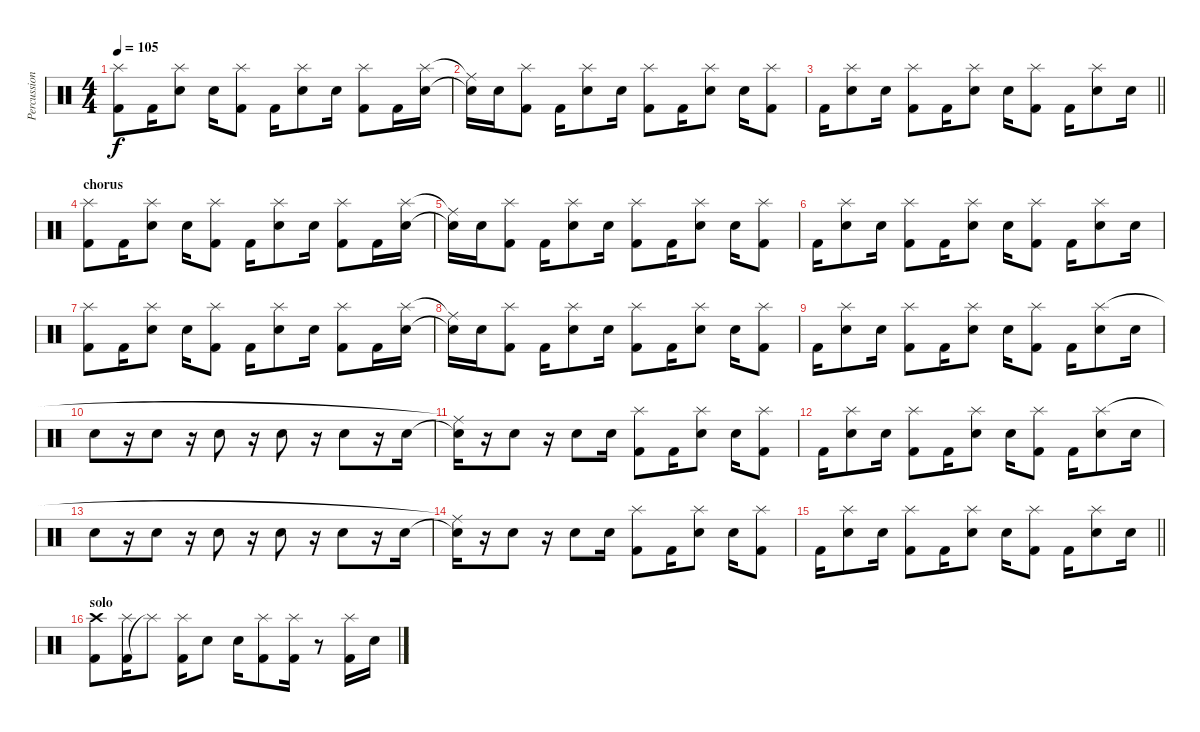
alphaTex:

\track ("Percussion" "Percussion") {instrument percussion}
\staff {score}
\articulation defaults
\ts (4 4)
\tempo 105
\clef neutral
\ks c
("Kick (hit) 2" "Splash (hit)").8{dy f} "Kick (hit) 2".16 ("Electric Snare (hit)" "Splash (hit)").8 "Electric Snare (hit)".16 ("Kick (hit) 2" "Splash (hit)").8 "Kick (hit) 2".16 ("Electric Snare (hit)" "Splash (hit)").8 "Electric Snare (hit)".16 ("Kick (hit) 2" "Splash (hit)").8 "Kick (hit) 2".16 ("Electric Snare (hit)" "Splash (hit)").16 |
("Electric Snare (hit)"{t} "Ride (middle)"{t}).16 "Electric Snare (hit)".16 ("Kick (hit) 2" "Splash (hit)").8 "Kick (hit) 2".16 ("Electric Snare (hit)" "Splash (hit)").8 "Electric Snare (hit)".16 ("Kick (hit) 2" "Splash (hit)").8 "Kick (hit) 2".16 ("Electric Snare (hit)" "Splash (hit)").8 "Electric Snare (hit)".16 ("Kick (hit) 2" "Splash (hit)").8 |
\barLineRight lightlight "Kick (hit) 2".16
("Electric Snare (hit)" "Splash (hit)").8 "Electric Snare (hit)".16 ("Kick (hit) 2" "Splash (hit)").8 "Kick (hit) 2".16 ("Electric Snare (hit)" "Splash (hit)").8 "Electric Snare (hit)".16 ("Kick (hit) 2" "Splash (hit)").8 "Kick (hit) 2".16 ("Electric Snare (hit)" "Splash (hit)").8 "Electric Snare (hit)".16 |
\section ("" "chorus")
("Kick (hit) 2" "Splash (hit)").8 "Kick (hit) 2".16 ("Electric Snare (hit)" "Splash (hit)").8 "Electric Snare (hit)".16 ("Kick (hit) 2" "Splash (hit)").8 "Kick (hit) 2".16 ("Electric Snare (hit)" "Splash (hit)").8 "Electric Snare (hit)".16 ("Kick (hit) 2" "Splash (hit)").8 "Kick (hit) 2".16 ("Electric Snare (hit)" "Splash (hit)").16 |
("Electric Snare (hit)"{t} "Ride (middle)"{t}).16 "Electric Snare (hit)".16 ("Kick (hit) 2" "Splash (hit)").8 "Kick (hit) 2".16 ("Electric Snare (hit)" "Splash (hit)").8 "Electric Snare (hit)".16 ("Kick (hit) 2" "Splash (hit)").8 "Kick (hit) 2".16 ("Electric Snare (hit)" "Splash (hit)").8 "Electric Snare (hit)".16 ("Kick (hit) 2" "Splash (hit)").8 |
"Kick (hit) 2".16 ("Electric Snare (hit)" "Splash (hit)").8 "Electric Snare (hit)".16 ("Kick (hit) 2" "Splash (hit)").8 "Kick (hit) 2".16 ("Electric Snare (hit)" "Splash (hit)").8 "Electric Snare (hit)".16 ("Kick (hit) 2" "Splash (hit)").8 "Kick (hit) 2".16 ("Electric Snare (hit)" "Splash (hit)").8 "Electric Snare (hit)".16 |
("Kick (hit) 2" "Splash (hit)").8 "Kick (hit) 2".16 ("Electric Snare (hit)" "Splash (hit)").8 "Electric Snare (hit)".16 ("Kick (hit) 2" "Splash (hit)").8 "Kick (hit) 2".16 ("Electric Snare (hit)" "Splash (hit)").8 "Electric Snare (hit)".16 ("Kick (hit) 2" "Splash (hit)").8 "Kick (hit) 2".16 ("Electric Snare (hit)" "Splash (hit)").16 |
("Electric Snare (hit)"{t} "Ride (middle)"{t}).16 "Electric Snare (hit)".16 ("Kick (hit) 2" "Splash (hit)").8 "Kick (hit) 2".16 ("Electric Snare (hit)" "Splash (hit)").8 "Electric Snare (hit)".16 ("Kick (hit) 2" "Splash (hit)").8 "Kick (hit) 2".16 ("Electric Snare (hit)" "Splash (hit)").8 "Electric Snare (hit)".16 ("Kick (hit) 2" "Splash (hit)").8 |
"Kick (hit) 2".16 ("Electric Snare (hit)" "Splash (hit)").8 "Electric Snare (hit)".16 ("Kick (hit) 2" "Splash (hit)").8 "Kick (hit) 2".16 ("Electric Snare (hit)" "Splash (hit)").8 "Electric Snare (hit)".16 ("Kick (hit) 2" "Splash (hit)").8 "Kick (hit) 2".16 ("Electric Snare (hit)" "Splash (hit)").8 "Electric Snare (hit)".16 |
"Electric Snare (hit)".8 r.16 "Electric Snare (hit)".8 r.16 "Electric Snare (hit)".8 r.16 "Electric Snare (hit)".8 r.16 "Electric Snare (hit)".8 r.16 "Electric Snare (hit)".16 |
("Electric Snare (hit)"{t} "Ride (middle)"{t}).16 r.16 "Electric Snare (hit)".8 r.16 "Electric Snare (hit)".8 "Electric Snare (hit)".16 ("Kick (hit) 2" "Splash (hit)").8 "Kick (hit) 2".16 ("Electric Snare (hit)" "Splash (hit)").8 "Electric Snare (hit)".16 ("Kick (hit) 2" "Splash (hit)").8 |
"Kick (hit) 2".16 ("Electric Snare (hit)" "Splash (hit)").8 "Electric Snare (hit)".16 ("Kick (hit) 2" "Splash (hit)").8 "Kick (hit) 2".16 ("Electric Snare (hit)" "Splash (hit)").8 "Electric Snare (hit)".16 ("Kick (hit) 2" "Splash (hit)").8 "Kick (hit) 2".16 ("Electric Snare (hit)" "Splash (hit)").8 "Electric Snare (hit)".16 |
"Electric Snare (hit)".8 r.16 "Electric Snare (hit)".8 r.16 "Electric Snare (hit)".8 r.16 "Electric Snare (hit)".8 r.16 "Electric Snare (hit)".8 r.16 "Electric Snare (hit)".16 |
("Electric Snare (hit)"{t} "Ride (middle)"{t}).16 r.16 "Electric Snare (hit)".8 r.16 "Electric Snare (hit)".8 "Electric Snare (hit)".16 ("Kick (hit) 2" "Splash (hit)").8 "Kick (hit) 2".16 ("Electric Snare (hit)" "Splash (hit)").8 "Electric Snare (hit)".16 ("Kick (hit) 2" "Splash (hit)").8 |
\barLineRight lightlight "Kick (hit) 2".16
("Electric Snare (hit)" "Splash (hit)").8 "Electric Snare (hit)".16 ("Kick (hit) 2" "Splash (hit)").8 "Kick (hit) 2".16 ("Electric Snare (hit)" "Splash (hit)").8 "Electric Snare (hit)".16 ("Kick (hit) 2" "Splash (hit)").8 "Kick (hit) 2".16 ("Electric Snare (hit)" "Splash (hit)").8 "Electric Snare (hit)".16 |
\section ("" "solo")
("Kick (hit) 2" "Crash high (hit)").8 ("Kick (hit) 2" "Splash (hit)").16 "Splash (hit)"{t}.8 ("Kick (hit) 2" "Splash (hit)").16 "Electric Snare (hit)".8 "Electric Snare (hit)".16 ("Kick (hit) 2" "Splash (hit)").8 ("Kick (hit) 2" "Splash (hit)").16 r.8 ("Kick (hit) 2" "Splash (hit)").16 "Electric Snare (hit)".16
